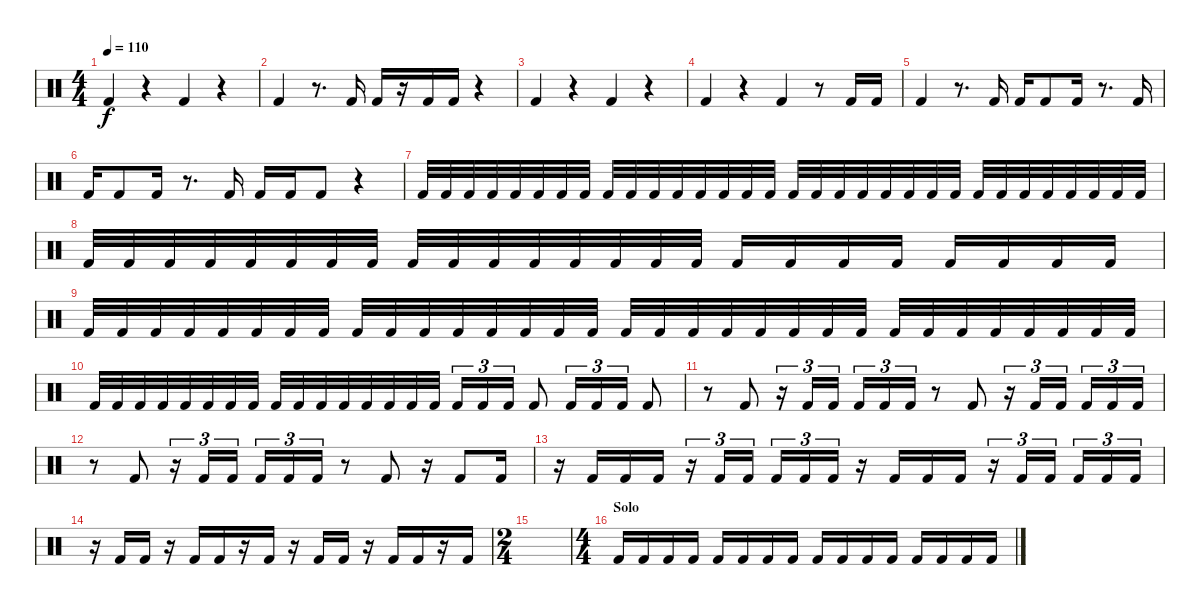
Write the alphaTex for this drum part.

\track "" {instrument percussion}
\staff {score}
\articulation defaults
\ts (4 4)
\tempo 110
\clef neutral
\ks c "Kick (hit) 2".4{dy f}
r.4 "Kick (hit) 2".4 r.4 |
"Kick (hit) 2".4 r.8{d} "Kick (hit) 2".16 "Kick (hit) 2".16 r.16 "Kick (hit) 2".16 "Kick (hit) 2".16 r.4 |
"Kick (hit) 2".4 r.4 "Kick (hit) 2".4 r.4 |
"Kick (hit) 2".4 r.4 "Kick (hit) 2".4 r.8 "Kick (hit) 2".16 "Kick (hit) 2".16 |
"Kick (hit) 2".4 r.8{d} "Kick (hit) 2".16 "Kick (hit) 2".16 "Kick (hit) 2".8 "Kick (hit) 2".16 r.8{d} "Kick (hit) 2".16 |
"Kick (hit) 2".16 "Kick (hit) 2".8 "Kick (hit) 2".16 r.8{d} "Kick (hit) 2".16 "Kick (hit) 2".16 "Kick (hit) 2".16 "Kick (hit) 2".8 r.4 |
"Kick (hit) 2".32 "Kick (hit) 2".32 "Kick (hit) 2".32 "Kick (hit) 2".32 "Kick (hit) 2".32 "Kick (hit) 2".32 "Kick (hit) 2".32 "Kick (hit) 2".32 "Kick (hit) 2".32 "Kick (hit) 2".32 "Kick (hit) 2".32 "Kick (hit) 2".32 "Kick (hit) 2".32 "Kick (hit) 2".32 "Kick (hit) 2".32 "Kick (hit) 2".32 "Kick (hit) 2".32 "Kick (hit) 2".32 "Kick (hit) 2".32 "Kick (hit) 2".32 "Kick (hit) 2".32 "Kick (hit) 2".32 "Kick (hit) 2".32 "Kick (hit) 2".32 "Kick (hit) 2".32 "Kick (hit) 2".32 "Kick (hit) 2".32 "Kick (hit) 2".32 "Kick (hit) 2".32 "Kick (hit) 2".32 "Kick (hit) 2".32 "Kick (hit) 2".32 |
"Kick (hit) 2".32 "Kick (hit) 2".32 "Kick (hit) 2".32 "Kick (hit) 2".32 "Kick (hit) 2".32 "Kick (hit) 2".32 "Kick (hit) 2".32 "Kick (hit) 2".32 "Kick (hit) 2".32 "Kick (hit) 2".32 "Kick (hit) 2".32 "Kick (hit) 2".32 "Kick (hit) 2".32 "Kick (hit) 2".32 "Kick (hit) 2".32 "Kick (hit) 2".32 "Kick (hit) 2".16 "Kick (hit) 2".16 "Kick (hit) 2".16 "Kick (hit) 2".16 "Kick (hit) 2".16 "Kick (hit) 2".16 "Kick (hit) 2".16 "Kick (hit) 2".16 |
"Kick (hit) 2".32 "Kick (hit) 2".32 "Kick (hit) 2".32 "Kick (hit) 2".32 "Kick (hit) 2".32 "Kick (hit) 2".32 "Kick (hit) 2".32 "Kick (hit) 2".32 "Kick (hit) 2".32 "Kick (hit) 2".32 "Kick (hit) 2".32 "Kick (hit) 2".32 "Kick (hit) 2".32 "Kick (hit) 2".32 "Kick (hit) 2".32 "Kick (hit) 2".32 "Kick (hit) 2".32 "Kick (hit) 2".32 "Kick (hit) 2".32 "Kick (hit) 2".32 "Kick (hit) 2".32 "Kick (hit) 2".32 "Kick (hit) 2".32 "Kick (hit) 2".32 "Kick (hit) 2".32 "Kick (hit) 2".32 "Kick (hit) 2".32 "Kick (hit) 2".32 "Kick (hit) 2".32 "Kick (hit) 2".32 "Kick (hit) 2".32 "Kick (hit) 2".32 |
"Kick (hit) 2".32 "Kick (hit) 2".32 "Kick (hit) 2".32 "Kick (hit) 2".32 "Kick (hit) 2".32 "Kick (hit) 2".32 "Kick (hit) 2".32 "Kick (hit) 2".32 "Kick (hit) 2".32 "Kick (hit) 2".32 "Kick (hit) 2".32 "Kick (hit) 2".32 "Kick (hit) 2".32 "Kick (hit) 2".32 "Kick (hit) 2".32 "Kick (hit) 2".32 "Kick (hit) 2".16{tu (3 2)} "Kick (hit) 2".16{tu (3 2)} "Kick (hit) 2".16{tu (3 2)} "Kick (hit) 2".8 "Kick (hit) 2".16{tu (3 2)} "Kick (hit) 2".16{tu (3 2)} "Kick (hit) 2".16{tu (3 2)} "Kick (hit) 2".8 |
r.8 "Kick (hit) 2".8 r.16{tu (3 2)} "Kick (hit) 2".16{tu (3 2)} "Kick (hit) 2".16{tu (3 2)} "Kick (hit) 2".16{tu (3 2)} "Kick (hit) 2".16{tu (3 2)} "Kick (hit) 2".16{tu (3 2)} r.8 "Kick (hit) 2".8 r.16{tu (3 2)} "Kick (hit) 2".16{tu (3 2)} "Kick (hit) 2".16{tu (3 2)} "Kick (hit) 2".16{tu (3 2)} "Kick (hit) 2".16{tu (3 2)} "Kick (hit) 2".16{tu (3 2)} |
r.8 "Kick (hit) 2".8 r.16{tu (3 2)} "Kick (hit) 2".16{tu (3 2)} "Kick (hit) 2".16{tu (3 2)} "Kick (hit) 2".16{tu (3 2)} "Kick (hit) 2".16{tu (3 2)} "Kick (hit) 2".16{tu (3 2)} r.8 "Kick (hit) 2".8 r.16 "Kick (hit) 2".8 "Kick (hit) 2".16 |
r.16 "Kick (hit) 2".16 "Kick (hit) 2".16 "Kick (hit) 2".16 r.16{tu (3 2)} "Kick (hit) 2".16{tu (3 2)} "Kick (hit) 2".16{tu (3 2)} "Kick (hit) 2".16{tu (3 2)} "Kick (hit) 2".16{tu (3 2)} "Kick (hit) 2".16{tu (3 2)} r.16 "Kick (hit) 2".16 "Kick (hit) 2".16 "Kick (hit) 2".16 r.16{tu (3 2)} "Kick (hit) 2".16{tu (3 2)} "Kick (hit) 2".16{tu (3 2)} "Kick (hit) 2".16{tu (3 2)} "Kick (hit) 2".16{tu (3 2)} "Kick (hit) 2".16{tu (3 2)} |
r.16 "Kick (hit) 2".16 "Kick (hit) 2".16 r.16 "Kick (hit) 2".16 "Kick (hit) 2".16 r.16 "Kick (hit) 2".16 r.16 "Kick (hit) 2".16 "Kick (hit) 2".16 r.16 "Kick (hit) 2".16 "Kick (hit) 2".16 r.16 "Kick (hit) 2".16 |
\ts (2 4)
|
\ts (4 4)
\section ("" "Solo")
"Kick (hit) 2".16 "Kick (hit) 2".16 "Kick (hit) 2".16 "Kick (hit) 2".16 "Kick (hit) 2".16 "Kick (hit) 2".16 "Kick (hit) 2".16 "Kick (hit) 2".16 "Kick (hit) 2".16 "Kick (hit) 2".16 "Kick (hit) 2".16 "Kick (hit) 2".16 "Kick (hit) 2".16 "Kick (hit) 2".16 "Kick (hit) 2".16 "Kick (hit) 2".16
